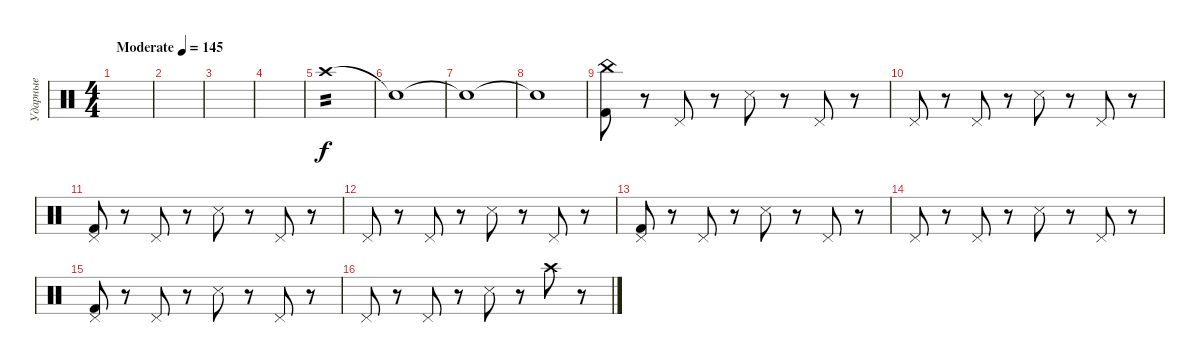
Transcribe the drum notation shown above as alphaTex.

\track ("Ударные" "Ударные") {instrument percussion}
\staff {score}
\articulation defaults
\ts (4 4)
\tempo (145 "Moderate")
\clef neutral
\ks c
|
|
|
|
"Crash high (hit)".1{tp 2} |
"Snare (hit)"{t}.1 |
"Snare (hit)"{t}.1 |
"Snare (hit)"{t}.1 |
("China (hit)" "Kick (hit) 2").8 r.8 "Pedal Hi-Hat (hit)".8 r.8 "Snare (side stick) 3".8 r.8 "Pedal Hi-Hat (hit)".8 r.8 |
"Pedal Hi-Hat (hit)".8 r.8 "Pedal Hi-Hat (hit)".8 r.8 "Snare (side stick) 3".8 r.8 "Pedal Hi-Hat (hit)".8 r.8 |
("Pedal Hi-Hat (hit)" "Kick (hit) 2").8 r.8 "Pedal Hi-Hat (hit)".8 r.8 "Snare (side stick) 3".8 r.8 "Pedal Hi-Hat (hit)".8 r.8 |
"Pedal Hi-Hat (hit)".8 r.8 "Pedal Hi-Hat (hit)".8 r.8 "Snare (side stick) 3".8 r.8 "Pedal Hi-Hat (hit)".8 r.8 |
("Pedal Hi-Hat (hit)" "Kick (hit) 2").8 r.8 "Pedal Hi-Hat (hit)".8 r.8 "Snare (side stick) 3".8 r.8 "Pedal Hi-Hat (hit)".8 r.8 |
"Pedal Hi-Hat (hit)".8 r.8 "Pedal Hi-Hat (hit)".8 r.8 "Snare (side stick) 3".8 r.8 "Pedal Hi-Hat (hit)".8 r.8 |
("Pedal Hi-Hat (hit)" "Kick (hit) 2").8 r.8 "Pedal Hi-Hat (hit)".8 r.8 "Snare (side stick) 3".8 r.8 "Pedal Hi-Hat (hit)".8 r.8 |
"Pedal Hi-Hat (hit)".8 r.8 "Pedal Hi-Hat (hit)".8 r.8 "Snare (side stick) 3".8 r.8 "Crash high (hit)".8 r.8
